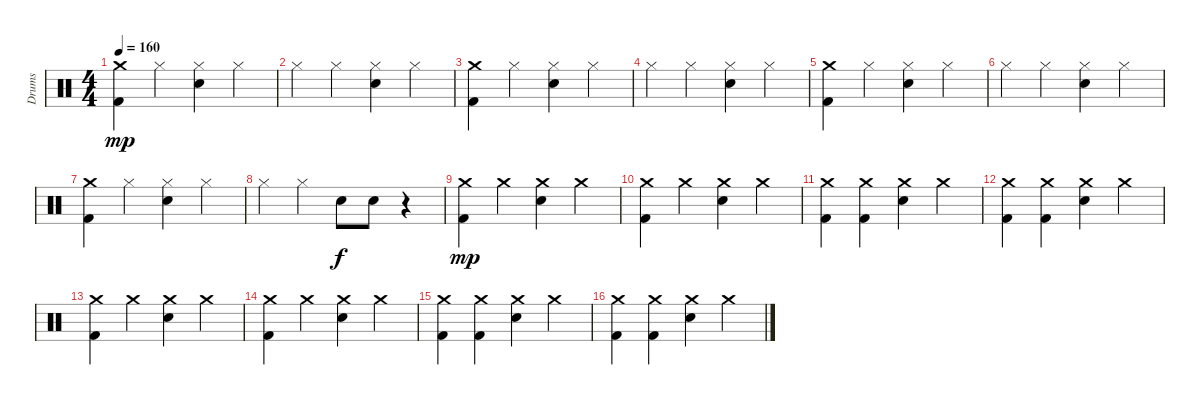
\track ("Drums" "Drums") {instrument percussion}
\staff {score}
\articulation defaults
\ts (4 4)
\tempo 160
\clef neutral
\ks c
("Kick (hit) 2" "Crash medium (hit)").4{dy mp} "Hi-Hat (closed)".4 ("Snare (hit) 2" "Hi-Hat (closed)").4 "Hi-Hat (closed)".4 |
"Hi-Hat (closed)".4 "Hi-Hat (closed)".4 ("Snare (hit) 2" "Hi-Hat (closed)").4 "Hi-Hat (closed)".4 |
("Kick (hit) 2" "Crash medium (hit)").4 "Hi-Hat (closed)".4 ("Snare (hit) 2" "Hi-Hat (closed)").4 "Hi-Hat (closed)".4 |
"Hi-Hat (closed)".4 "Hi-Hat (closed)".4 ("Snare (hit) 2" "Hi-Hat (closed)").4 "Hi-Hat (closed)".4 |
("Kick (hit) 2" "Crash medium (hit)").4 "Hi-Hat (closed)".4 ("Snare (hit) 2" "Hi-Hat (closed)").4 "Hi-Hat (closed)".4 |
"Hi-Hat (closed)".4 "Hi-Hat (closed)".4 ("Snare (hit) 2" "Hi-Hat (closed)").4 "Hi-Hat (closed)".4 |
("Kick (hit) 2" "Crash medium (hit)").4 "Hi-Hat (closed)".4 ("Snare (hit) 2" "Hi-Hat (closed)").4 "Hi-Hat (closed)".4 |
"Hi-Hat (closed)".4 "Hi-Hat (closed)".4 "Snare (hit) 2".8{dy f} "Snare (hit) 2".8 r.4 |
("Kick (hit) 2" "Crash medium (hit)").4{dy mp} "Crash medium (hit)".4 ("Snare (hit) 2" "Crash medium (hit)").4 "Crash medium (hit)".4 |
("Kick (hit) 2" "Crash medium (hit)").4 "Crash medium (hit)".4 ("Snare (hit) 2" "Crash medium (hit)").4 "Crash medium (hit)".4 |
("Kick (hit) 2" "Crash medium (hit)").4 ("Kick (hit) 2" "Crash medium (hit)").4 ("Snare (hit) 2" "Crash medium (hit)").4 "Crash medium (hit)".4 |
("Kick (hit) 2" "Crash medium (hit)").4 ("Kick (hit) 2" "Crash medium (hit)").4 ("Snare (hit) 2" "Crash medium (hit)").4 "Crash medium (hit)".4 |
("Kick (hit) 2" "Crash medium (hit)").4 "Crash medium (hit)".4 ("Snare (hit) 2" "Crash medium (hit)").4 "Crash medium (hit)".4 |
("Kick (hit) 2" "Crash medium (hit)").4 "Crash medium (hit)".4 ("Snare (hit) 2" "Crash medium (hit)").4 "Crash medium (hit)".4 |
("Kick (hit) 2" "Crash medium (hit)").4 ("Kick (hit) 2" "Crash medium (hit)").4 ("Snare (hit) 2" "Crash medium (hit)").4 "Crash medium (hit)".4 |
("Kick (hit) 2" "Crash medium (hit)").4 ("Kick (hit) 2" "Crash medium (hit)").4 ("Snare (hit) 2" "Crash medium (hit)").4 "Crash medium (hit)".4
